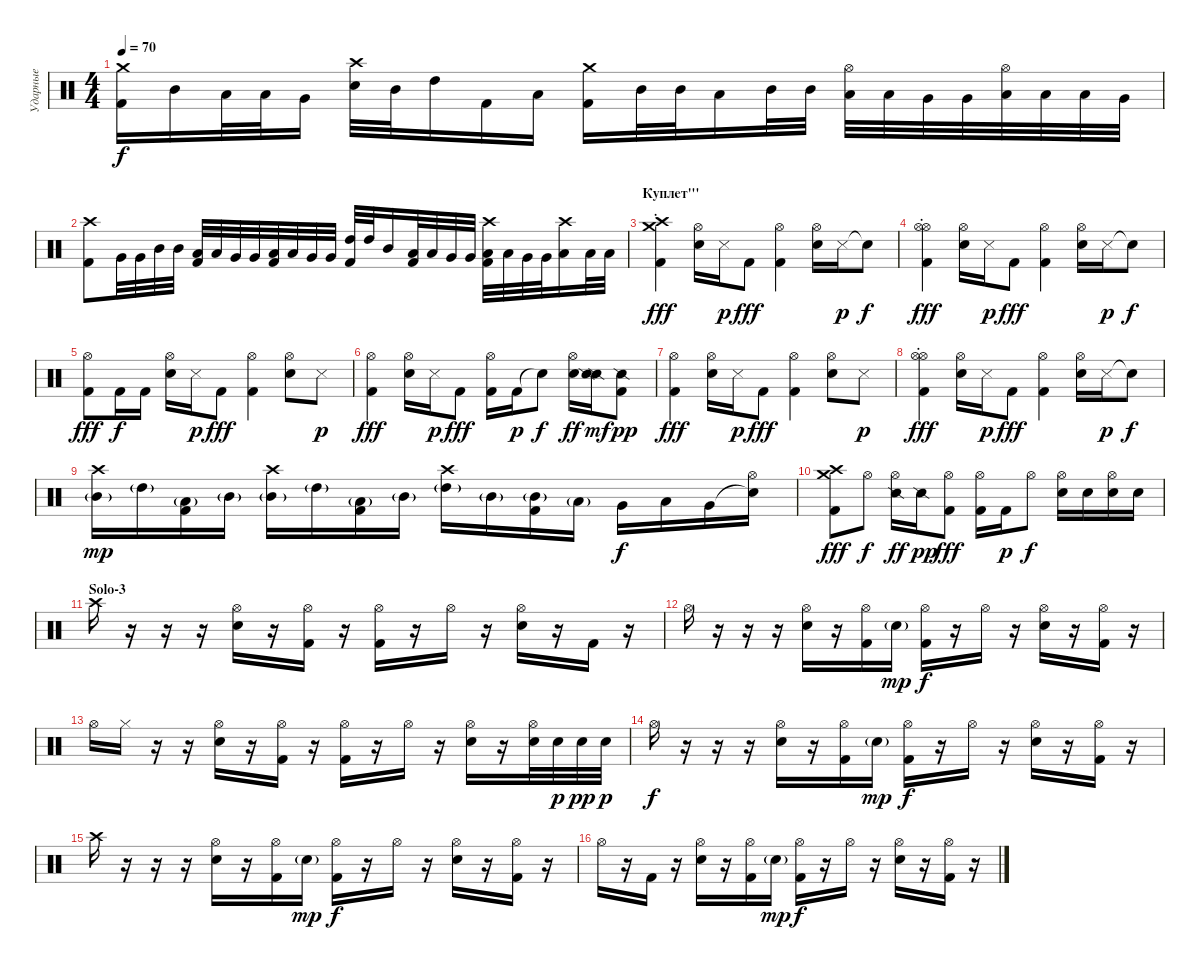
\track ("Ударные" "Ударные") {instrument percussion}
\staff {score}
\articulation defaults
\ts (4 4)
\tempo 70
\clef neutral
\ks c
("Crash medium (hit)" "Kick (hit) 2").16{dy f} "Mid Tom (hit)".16 "Low Tom (hit)".32 "Low Tom (hit)".32 "Very Low Tom (hit)".16 ("Crash high (hit)" "Electric Snare (hit)").32 "Mid Tom (hit)".32 "High Tom (hit)".16 "Kick (hit) 2".16 "Low Tom (hit)".16 ("Crash medium (hit)" "Kick (hit) 2").16 "Mid Tom (hit)".32 "Mid Tom (hit)".32 "Low Tom (hit)".16 "Mid Tom (hit)".32 "Mid Tom (hit)".32 ("Hi-Hat (open)" "Low Tom (hit)").32 "Low Tom (hit)".32 "Very Low Tom (hit)".32 "Very Low Tom (hit)".32 ("Hi-Hat (open)" "Low Floor Tom (hit)").32 "Low Floor Tom (hit)".32 "Low Floor Tom (hit)".32 "Very Low Tom (hit)".32 |
("Crash high (hit)" "Kick (hit) 2").8 "Very Low Tom (hit)".32 "Very Low Tom (hit)".32 "Mid Tom (hit)".32 "Mid Tom (hit)".32 ("Kick (hit) 2" "Low Tom (hit)").32 "Low Tom (hit)".32 "Very Low Tom (hit)".32 "Very Low Tom (hit)".32 ("Kick (hit) 2" "Low Floor Tom (hit)").32 "Low Floor Tom (hit)".32 "Very Low Tom (hit)".32 "Very Low Tom (hit)".32 ("Kick (hit) 2" "High Tom (hit)").32 "High Tom (hit)".32 "Mid Tom (hit)".16 ("Kick (hit) 2" "Low Tom (hit)").32 "Low Tom (hit)".32 "Very Low Tom (hit)".32 "Very Low Tom (hit)".32 ("Crash high (hit)" "Kick (hit) 2" "Low Tom (hit)").32 "Low Tom (hit)".32 "Very Low Tom (hit)".32 "Very Low Tom (hit)".32 ("Crash high (hit)" "Low Floor Tom (hit)").16 "Low Floor Tom (hit)".32 "Low Floor Tom (hit)".32 |
\section ("" "Куплет'''")
("Crash medium (hit)" "Crash high (hit)"{st} "Kick (hit) 2").4{dy fff} ("Hi-Hat (open)" "Electric Snare (hit)").16 "Snare (side stick) 3".16{dy p} "Kick (hit) 2".8{dy fff} ("Hi-Hat (open)" "Kick (hit) 2").4 ("Hi-Hat (open)" "Electric Snare (hit)").16 "Snare (side stick) 3".16{dy p} "Snare (hit)"{t}.8{dy f} |
("Hi-Hat (open)" "Hi-Hat (open)"{st} "Kick (hit) 2").4{dy fff} ("Hi-Hat (open)" "Electric Snare (hit)").16 "Snare (side stick) 3".16{dy p} "Kick (hit) 2".8{dy fff} ("Hi-Hat (open)" "Kick (hit) 2").4 ("Hi-Hat (open)" "Electric Snare (hit)").16 "Snare (side stick) 3".16{dy p} "Snare (hit)"{t}.8{dy f} |
("Hi-Hat (open)" "Kick (hit) 2").8{dy fff} "Kick (hit) 2".16{dy f} "Kick (hit) 2".16 ("Electric Snare (hit)" "Hi-Hat (open)").16 "Snare (side stick) 3".16{dy p} "Kick (hit) 2".8{dy fff} ("Hi-Hat (open)" "Kick (hit) 2").4 ("Hi-Hat (open)" "Electric Snare (hit)").8 "Snare (side stick) 3".8{dy p} |
("Hi-Hat (open)" "Kick (hit) 2").4{dy fff} ("Electric Snare (hit)" "Hi-Hat (open)").16 "Snare (side stick) 3".16{dy p} "Kick (hit) 2".8{dy fff} ("Hi-Hat (open)" "Kick (hit) 2").16 "Kick (hit) 2".16{dy p} "Snare (hit)"{t}.8{dy f} ("Hi-Hat (open)" "Electric Snare (hit)").16{dy ff} ("Snare (side stick) 2" "Snare (side stick) 2").16{dy mf} ("Kick (hit) 2" "Snare (side stick) 2").8{dy pp} |
("Hi-Hat (open)" "Kick (hit) 2").4{dy fff} ("Hi-Hat (open)" "Electric Snare (hit)").16 "Snare (side stick) 3".16{dy p} "Kick (hit) 2".8{dy fff} ("Hi-Hat (open)" "Kick (hit) 2").4 ("Hi-Hat (open)" "Electric Snare (hit)").8 "Snare (side stick) 3".8{dy p} |
("Hi-Hat (open)" "Hi-Hat (open)"{st} "Kick (hit) 2").4{dy fff} ("Hi-Hat (open)" "Electric Snare (hit)").16 "Snare (side stick) 3".16{dy p} "Kick (hit) 2".8{dy fff} ("Hi-Hat (open)" "Kick (hit) 2").4 ("Hi-Hat (open)" "Electric Snare (hit)").16 "Snare (side stick) 3".16{dy p} "Snare (hit)"{t}.8{dy f} |
("Mid Tom (hit)"{g} "Crash high (hit)").16{dy mp} "High Tom (hit)"{g}.16 ("Low Tom (hit)"{g} "Kick (hit) 2").16 "Mid Tom (hit)"{g}.16 ("Mid Tom (hit)"{g} "Crash high (hit)").16 "High Tom (hit)"{g}.16 ("Low Tom (hit)"{g} "Kick (hit) 2").16 "Mid Tom (hit)"{g}.16 ("High Tom (hit)"{g} "Crash high (hit)").16 "Mid Tom (hit)"{g}.16 ("Mid Tom (hit)"{g} "Kick (hit) 2").16 "Low Tom (hit)"{g}.16 "Very Low Tom (hit)".16{dy f} "Low Floor Tom (hit)".16 "Very Low Tom (hit)".16 ("Snare (hit)"{t} "Hi-Hat (open)").16 |
("Crash medium (hit)" "Kick (hit) 2" "Crash high (hit)").8{dy fff} "Hi-Hat (open)".8{dy f} ("Hi-Hat (open)" "Snare (side stick) 2").16{dy ff} "Snare (side stick) 2".16{dy pp} ("Kick (hit) 2" "Hi-Hat (open)").8{dy fff} ("Kick (hit) 2" "Hi-Hat (open)").16 "Kick (hit) 2".16{dy p} "Hi-Hat (open)".8{dy f} ("Hi-Hat (open)" "Electric Snare (hit)").16 "Electric Snare (hit)".16 ("Hi-Hat (open)" "Electric Snare (hit)").16 "Electric Snare (hit)".16 |
\section ("" "Solo-3")
"Crash high (hit)".16 r.16 r.16 r.16 ("Hi-Hat (open)" "Electric Snare (hit)").16 r.16 ("Hi-Hat (open)" "Kick (hit) 2").16 r.16 ("Hi-Hat (open)" "Kick (hit) 2").16 r.16 "Hi-Hat (open)".16 r.16 ("Hi-Hat (open)" "Electric Snare (hit)").16 r.16 "Kick (hit) 2".16 r.16 |
"Hi-Hat (open)".16 r.16 r.16 r.16 ("Hi-Hat (open)" "Electric Snare (hit)").16 r.16 ("Hi-Hat (open)" "Kick (hit) 2").16 "Electric Snare (hit)"{g}.16{dy mp} ("Hi-Hat (open)" "Kick (hit) 2").16{dy f} r.16 "Hi-Hat (open)".16 r.16 ("Hi-Hat (open)" "Electric Snare (hit)").16 r.16 ("Hi-Hat (open)" "Kick (hit) 2").16 r.16 |
"Hi-Hat (open)".16 "Hi-Hat (closed)".16 r.16 r.16 ("Hi-Hat (open)" "Electric Snare (hit)").16 r.16 ("Hi-Hat (open)" "Kick (hit) 2").16 r.16 ("Hi-Hat (open)" "Kick (hit) 2").16 r.16 "Hi-Hat (open)".16 r.16 ("Hi-Hat (open)" "Electric Snare (hit)").16 r.16 ("Hi-Hat (open)" "Electric Snare (hit)").32 "Electric Snare (hit)".32{dy p} "Electric Snare (hit)".32{dy pp} "Electric Snare (hit)".32{dy p} |
"Hi-Hat (open)".16{dy f} r.16 r.16 r.16 ("Hi-Hat (open)" "Electric Snare (hit)").16 r.16 ("Hi-Hat (open)" "Kick (hit) 2").16 "Electric Snare (hit)"{g}.16{dy mp} ("Hi-Hat (open)" "Kick (hit) 2").16{dy f} r.16 "Hi-Hat (open)".16 r.16 ("Hi-Hat (open)" "Electric Snare (hit)").16 r.16 ("Hi-Hat (open)" "Kick (hit) 2").16 r.16 |
"Crash high (hit)".16 r.16 r.16 r.16 ("Hi-Hat (open)" "Electric Snare (hit)").16 r.16 ("Hi-Hat (open)" "Kick (hit) 2").16 "Electric Snare (hit)"{g}.16{dy mp} ("Hi-Hat (open)" "Kick (hit) 2").16{dy f} r.16 "Hi-Hat (open)".16 r.16 ("Hi-Hat (open)" "Electric Snare (hit)").16 r.16 ("Hi-Hat (open)" "Kick (hit) 2").16 r.16 |
"Hi-Hat (open)".16 r.16 "Kick (hit) 2".16 r.16 ("Hi-Hat (open)" "Electric Snare (hit)").16 r.16 ("Hi-Hat (open)" "Kick (hit) 2").16 "Electric Snare (hit)"{g}.16{dy mp} ("Hi-Hat (open)" "Kick (hit) 2").16{dy f} r.16 "Hi-Hat (open)".16 r.16 ("Hi-Hat (open)" "Electric Snare (hit)").16 r.16 ("Hi-Hat (open)" "Kick (hit) 2").16 r.16
